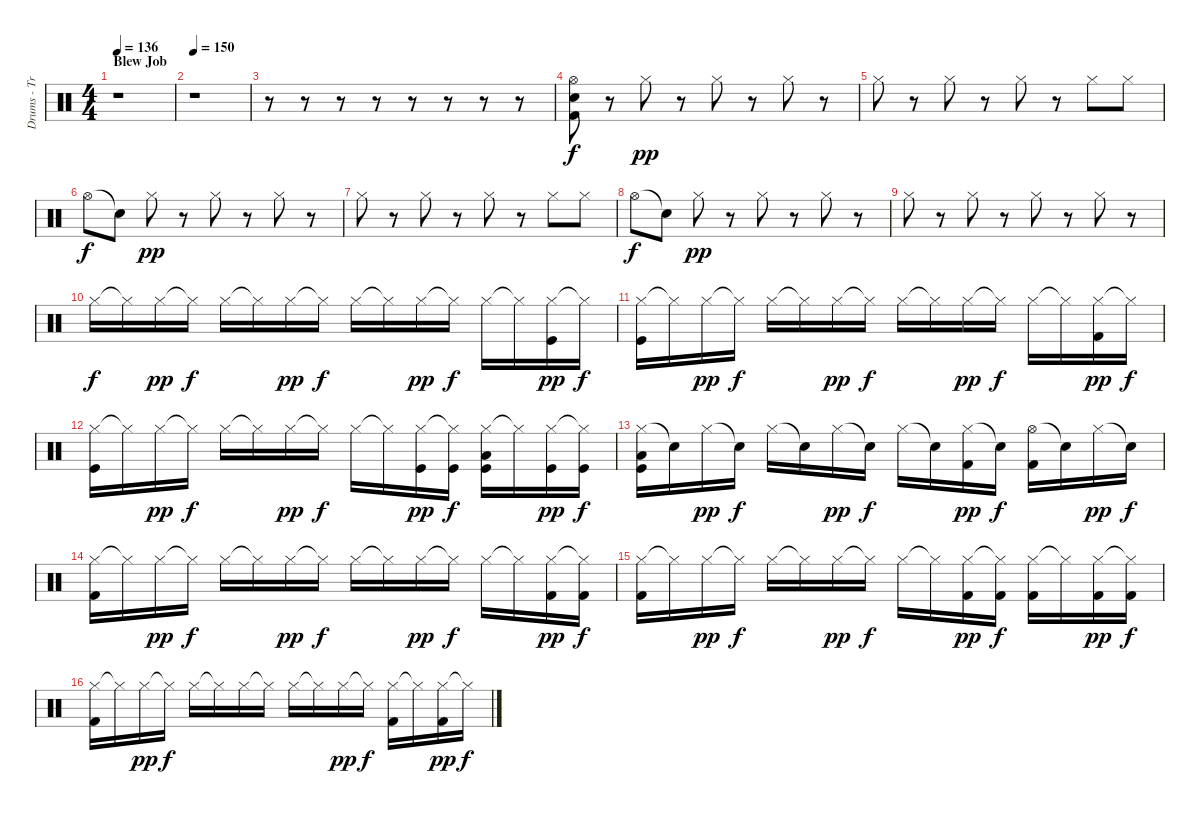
\track ("Drums - Travis Barker" "Drums - Tr") {instrument percussion}
\staff {score}
\articulation defaults
\ts (4 4)
\section ("" "Blew Job")
\tempo 136
\clef neutral
\ks c
r.1{dy f} |
\tempo 150
r.1 |
r.8 r.8 r.8 r.8 r.8 r.8 r.8 r.8 |
("Hi-Hat (open)" "Electric Snare (hit)" "Kick (hit) 2").8 r.8 "Hi-Hat (closed)".8{dy pp} r.8 "Hi-Hat (closed)".8 r.8 "Hi-Hat (closed)".8 r.8 |
"Hi-Hat (closed)".8 r.8 "Hi-Hat (closed)".8 r.8 "Hi-Hat (closed)".8 r.8 "Hi-Hat (closed)".8 "Hi-Hat (closed)".8 |
"Hi-Hat (open)".8{dy f} "Snare (hit)"{t}.8 "Hi-Hat (closed)".8{dy pp} r.8 "Hi-Hat (closed)".8 r.8 "Hi-Hat (closed)".8 r.8 |
"Hi-Hat (closed)".8 r.8 "Hi-Hat (closed)".8 r.8 "Hi-Hat (closed)".8 r.8 "Hi-Hat (closed)".8 "Hi-Hat (closed)".8 |
"Hi-Hat (open)".8{dy f} "Snare (hit)"{t}.8 "Hi-Hat (closed)".8{dy pp} r.8 "Hi-Hat (closed)".8 r.8 "Hi-Hat (closed)".8 r.8 |
"Hi-Hat (closed)".8 r.8 "Hi-Hat (closed)".8 r.8 "Hi-Hat (closed)".8 r.8 "Hi-Hat (closed)".8 r.8 |
"Hi-Hat (closed)".16{dy f} "Hi-Hat (closed)"{t}.16 "Hi-Hat (closed)".16{dy pp} "Hi-Hat (closed)"{t}.16{dy f} "Hi-Hat (closed)".16 "Hi-Hat (closed)"{t}.16 "Hi-Hat (closed)".16{dy pp} "Hi-Hat (closed)"{t}.16{dy f} "Hi-Hat (closed)".16 "Hi-Hat (closed)"{t}.16 "Hi-Hat (closed)".16{dy pp} "Hi-Hat (closed)"{t}.16{dy f} "Hi-Hat (closed)".16 "Hi-Hat (closed)"{t}.16 ("Hi-Hat (closed)" "Kick (hit)").16{dy pp} "Hi-Hat (closed)"{t}.16{dy f} |
("Hi-Hat (closed)" "Kick (hit)").16 "Hi-Hat (closed)"{t}.16 "Hi-Hat (closed)".16{dy pp} "Hi-Hat (closed)"{t}.16{dy f} "Hi-Hat (closed)".16 "Hi-Hat (closed)"{t}.16 "Hi-Hat (closed)".16{dy pp} "Hi-Hat (closed)"{t}.16{dy f} "Hi-Hat (closed)".16 "Hi-Hat (closed)"{t}.16 "Hi-Hat (closed)".16{dy pp} "Hi-Hat (closed)"{t}.16{dy f} "Hi-Hat (closed)".16 "Hi-Hat (closed)"{t}.16 ("Hi-Hat (closed)" "Kick (hit) 2").16{dy pp} "Hi-Hat (closed)"{t}.16{dy f} |
("Hi-Hat (closed)" "Kick (hit)").16 "Hi-Hat (closed)"{t}.16 "Hi-Hat (closed)".16{dy pp} "Hi-Hat (closed)"{t}.16{dy f} "Hi-Hat (closed)".16 "Hi-Hat (closed)"{t}.16 "Hi-Hat (closed)".16{dy pp} "Hi-Hat (closed)"{t}.16{dy f} "Hi-Hat (closed)".16 "Hi-Hat (closed)"{t}.16 ("Hi-Hat (closed)" "Kick (hit)").16{dy pp} ("Hi-Hat (closed)"{t} "Kick (hit)").16{dy f} ("Hi-Hat (closed)" "Low Tom (hit)" "Kick (hit)").16 "Hi-Hat (closed)"{t}.16 ("Hi-Hat (closed)" "Kick (hit)").16{dy pp} ("Hi-Hat (closed)"{t} "Kick (hit)").16{dy f} |
("Hi-Hat (closed)" "Low Tom (hit)" "Kick (hit)").16 "Snare (hit)"{t}.16 "Hi-Hat (closed)".16{dy pp} "Snare (hit)"{t}.16{dy f} "Hi-Hat (closed)".16 "Snare (hit)"{t}.16 "Hi-Hat (closed)".16{dy pp} "Snare (hit)"{t}.16{dy f} "Hi-Hat (closed)".16 "Snare (hit)"{t}.16 ("Hi-Hat (closed)" "Kick (hit) 2").16{dy pp} "Snare (hit)"{t}.16{dy f} ("Hi-Hat (open)" "Kick (hit) 2").16 "Snare (hit)"{t}.16 "Hi-Hat (closed)".16{dy pp} "Snare (hit)"{t}.16{dy f} |
("Hi-Hat (closed)" "Kick (hit) 2").16 "Hi-Hat (closed)"{t}.16 "Hi-Hat (closed)".16{dy pp} "Hi-Hat (closed)"{t}.16{dy f} "Hi-Hat (closed)".16 "Hi-Hat (closed)"{t}.16 "Hi-Hat (closed)".16{dy pp} "Hi-Hat (closed)"{t}.16{dy f} "Hi-Hat (closed)".16 "Hi-Hat (closed)"{t}.16 "Hi-Hat (closed)".16{dy pp} "Hi-Hat (closed)"{t}.16{dy f} "Hi-Hat (closed)".16 "Hi-Hat (closed)"{t}.16 ("Hi-Hat (closed)" "Kick (hit) 2").16{dy pp} ("Hi-Hat (closed)"{t} "Kick (hit) 2").16{dy f} |
("Hi-Hat (closed)" "Kick (hit) 2").16 "Hi-Hat (closed)"{t}.16 "Hi-Hat (closed)".16{dy pp} "Hi-Hat (closed)"{t}.16{dy f} "Hi-Hat (closed)".16 "Hi-Hat (closed)"{t}.16 "Hi-Hat (closed)".16{dy pp} "Hi-Hat (closed)"{t}.16{dy f} "Hi-Hat (closed)".16 "Hi-Hat (closed)"{t}.16 ("Hi-Hat (closed)" "Kick (hit) 2").16{dy pp} ("Hi-Hat (closed)"{t} "Kick (hit) 2").16{dy f} ("Hi-Hat (closed)" "Kick (hit) 2").16 "Hi-Hat (closed)"{t}.16 ("Hi-Hat (closed)" "Kick (hit) 2").16{dy pp} ("Hi-Hat (closed)"{t} "Kick (hit) 2").16{dy f} |
("Hi-Hat (closed)" "Kick (hit) 2").16 "Hi-Hat (closed)"{t}.16 "Hi-Hat (closed)".16{dy pp} "Hi-Hat (closed)"{t}.16{dy f} "Hi-Hat (closed)".16 "Hi-Hat (closed)"{t}.16 "Hi-Hat (closed)".16 "Hi-Hat (closed)"{t}.16 "Hi-Hat (closed)".16 "Hi-Hat (closed)"{t}.16 "Hi-Hat (closed)".16{dy pp} "Hi-Hat (closed)"{t}.16{dy f} ("Hi-Hat (closed)" "Kick (hit) 2").16 "Hi-Hat (closed)"{t}.16 ("Hi-Hat (closed)" "Kick (hit) 2").16{dy pp} "Hi-Hat (closed)"{t}.16{dy f}
